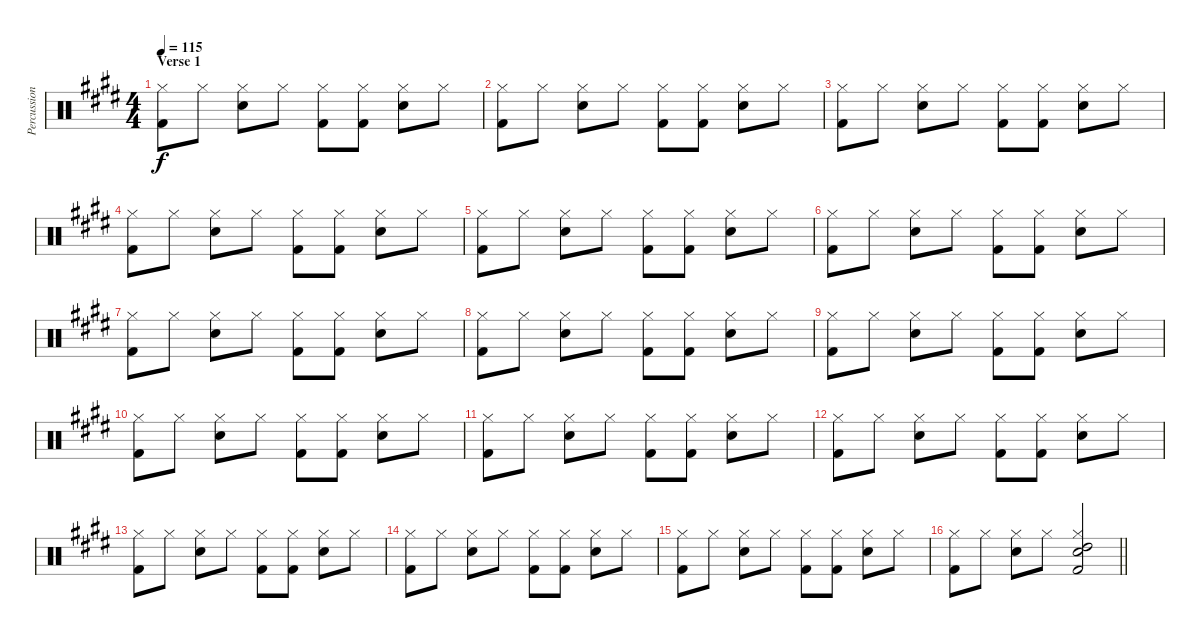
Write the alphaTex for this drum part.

\track ("Percussion" "Percussion") {instrument percussion}
\staff {score}
\articulation defaults
\ts (4 4)
\section ("" "Verse 1")
\tempo 115
\clef neutral
\ks e
("Kick (hit) 2" "Hi-Hat (closed)").8{dy f} "Hi-Hat (closed)".8 ("Electric Snare (hit)" "Hi-Hat (closed)").8 "Hi-Hat (closed)".8 ("Kick (hit) 2" "Hi-Hat (closed)").8 ("Kick (hit) 2" "Hi-Hat (closed)").8 ("Electric Snare (hit)" "Hi-Hat (closed)").8 "Hi-Hat (closed)".8 |
("Kick (hit) 2" "Hi-Hat (closed)").8 "Hi-Hat (closed)".8 ("Electric Snare (hit)" "Hi-Hat (closed)").8 "Hi-Hat (closed)".8 ("Kick (hit) 2" "Hi-Hat (closed)").8 ("Kick (hit) 2" "Hi-Hat (closed)").8 ("Electric Snare (hit)" "Hi-Hat (closed)").8 "Hi-Hat (closed)".8 |
("Kick (hit) 2" "Hi-Hat (closed)").8 "Hi-Hat (closed)".8 ("Electric Snare (hit)" "Hi-Hat (closed)").8 "Hi-Hat (closed)".8 ("Kick (hit) 2" "Hi-Hat (closed)").8 ("Kick (hit) 2" "Hi-Hat (closed)").8 ("Electric Snare (hit)" "Hi-Hat (closed)").8 "Hi-Hat (closed)".8 |
("Kick (hit) 2" "Hi-Hat (closed)").8 "Hi-Hat (closed)".8 ("Electric Snare (hit)" "Hi-Hat (closed)").8 "Hi-Hat (closed)".8 ("Kick (hit) 2" "Hi-Hat (closed)").8 ("Kick (hit) 2" "Hi-Hat (closed)").8 ("Electric Snare (hit)" "Hi-Hat (closed)").8 "Hi-Hat (closed)".8 |
("Kick (hit) 2" "Hi-Hat (closed)").8 "Hi-Hat (closed)".8 ("Electric Snare (hit)" "Hi-Hat (closed)").8 "Hi-Hat (closed)".8 ("Kick (hit) 2" "Hi-Hat (closed)").8 ("Kick (hit) 2" "Hi-Hat (closed)").8 ("Electric Snare (hit)" "Hi-Hat (closed)").8 "Hi-Hat (closed)".8 |
("Kick (hit) 2" "Hi-Hat (closed)").8 "Hi-Hat (closed)".8 ("Electric Snare (hit)" "Hi-Hat (closed)").8 "Hi-Hat (closed)".8 ("Kick (hit) 2" "Hi-Hat (closed)").8 ("Kick (hit) 2" "Hi-Hat (closed)").8 ("Electric Snare (hit)" "Hi-Hat (closed)").8 "Hi-Hat (closed)".8 |
("Kick (hit) 2" "Hi-Hat (closed)").8 "Hi-Hat (closed)".8 ("Electric Snare (hit)" "Hi-Hat (closed)").8 "Hi-Hat (closed)".8 ("Kick (hit) 2" "Hi-Hat (closed)").8 ("Kick (hit) 2" "Hi-Hat (closed)").8 ("Electric Snare (hit)" "Hi-Hat (closed)").8 "Hi-Hat (closed)".8 |
("Kick (hit) 2" "Hi-Hat (closed)").8 "Hi-Hat (closed)".8 ("Electric Snare (hit)" "Hi-Hat (closed)").8 "Hi-Hat (closed)".8 ("Kick (hit) 2" "Hi-Hat (closed)").8 ("Kick (hit) 2" "Hi-Hat (closed)").8 ("Electric Snare (hit)" "Hi-Hat (closed)").8 "Hi-Hat (closed)".8 |
("Kick (hit) 2" "Hi-Hat (closed)").8 "Hi-Hat (closed)".8 ("Electric Snare (hit)" "Hi-Hat (closed)").8 "Hi-Hat (closed)".8 ("Kick (hit) 2" "Hi-Hat (closed)").8 ("Kick (hit) 2" "Hi-Hat (closed)").8 ("Electric Snare (hit)" "Hi-Hat (closed)").8 "Hi-Hat (closed)".8 |
("Kick (hit) 2" "Hi-Hat (closed)").8 "Hi-Hat (closed)".8 ("Electric Snare (hit)" "Hi-Hat (closed)").8 "Hi-Hat (closed)".8 ("Kick (hit) 2" "Hi-Hat (closed)").8 ("Kick (hit) 2" "Hi-Hat (closed)").8 ("Electric Snare (hit)" "Hi-Hat (closed)").8 "Hi-Hat (closed)".8 |
("Kick (hit) 2" "Hi-Hat (closed)").8 "Hi-Hat (closed)".8 ("Electric Snare (hit)" "Hi-Hat (closed)").8 "Hi-Hat (closed)".8 ("Kick (hit) 2" "Hi-Hat (closed)").8 ("Kick (hit) 2" "Hi-Hat (closed)").8 ("Electric Snare (hit)" "Hi-Hat (closed)").8 "Hi-Hat (closed)".8 |
("Kick (hit) 2" "Hi-Hat (closed)").8 "Hi-Hat (closed)".8 ("Electric Snare (hit)" "Hi-Hat (closed)").8 "Hi-Hat (closed)".8 ("Kick (hit) 2" "Hi-Hat (closed)").8 ("Kick (hit) 2" "Hi-Hat (closed)").8 ("Electric Snare (hit)" "Hi-Hat (closed)").8 "Hi-Hat (closed)".8 |
("Kick (hit) 2" "Hi-Hat (closed)").8 "Hi-Hat (closed)".8 ("Electric Snare (hit)" "Hi-Hat (closed)").8 "Hi-Hat (closed)".8 ("Kick (hit) 2" "Hi-Hat (closed)").8 ("Kick (hit) 2" "Hi-Hat (closed)").8 ("Electric Snare (hit)" "Hi-Hat (closed)").8 "Hi-Hat (closed)".8 |
("Kick (hit) 2" "Hi-Hat (closed)").8 "Hi-Hat (closed)".8 ("Electric Snare (hit)" "Hi-Hat (closed)").8 "Hi-Hat (closed)".8 ("Kick (hit) 2" "Hi-Hat (closed)").8 ("Kick (hit) 2" "Hi-Hat (closed)").8 ("Electric Snare (hit)" "Hi-Hat (closed)").8 "Hi-Hat (closed)".8 |
("Kick (hit) 2" "Hi-Hat (closed)").8 "Hi-Hat (closed)".8 ("Electric Snare (hit)" "Hi-Hat (closed)").8 "Hi-Hat (closed)".8 ("Kick (hit) 2" "Hi-Hat (closed)").8 ("Kick (hit) 2" "Hi-Hat (closed)").8 ("Electric Snare (hit)" "Hi-Hat (closed)").8 "Hi-Hat (closed)".8 |
\barLineRight lightlight
("Kick (hit) 2" "Hi-Hat (closed)").8 "Hi-Hat (closed)".8 ("Electric Snare (hit)" "Hi-Hat (closed)").8 "Hi-Hat (closed)".8 ("Kick (hit) 2" "Hi-Hat (closed)" "Electric Snare (hit)" "High Tom (hit)").2
